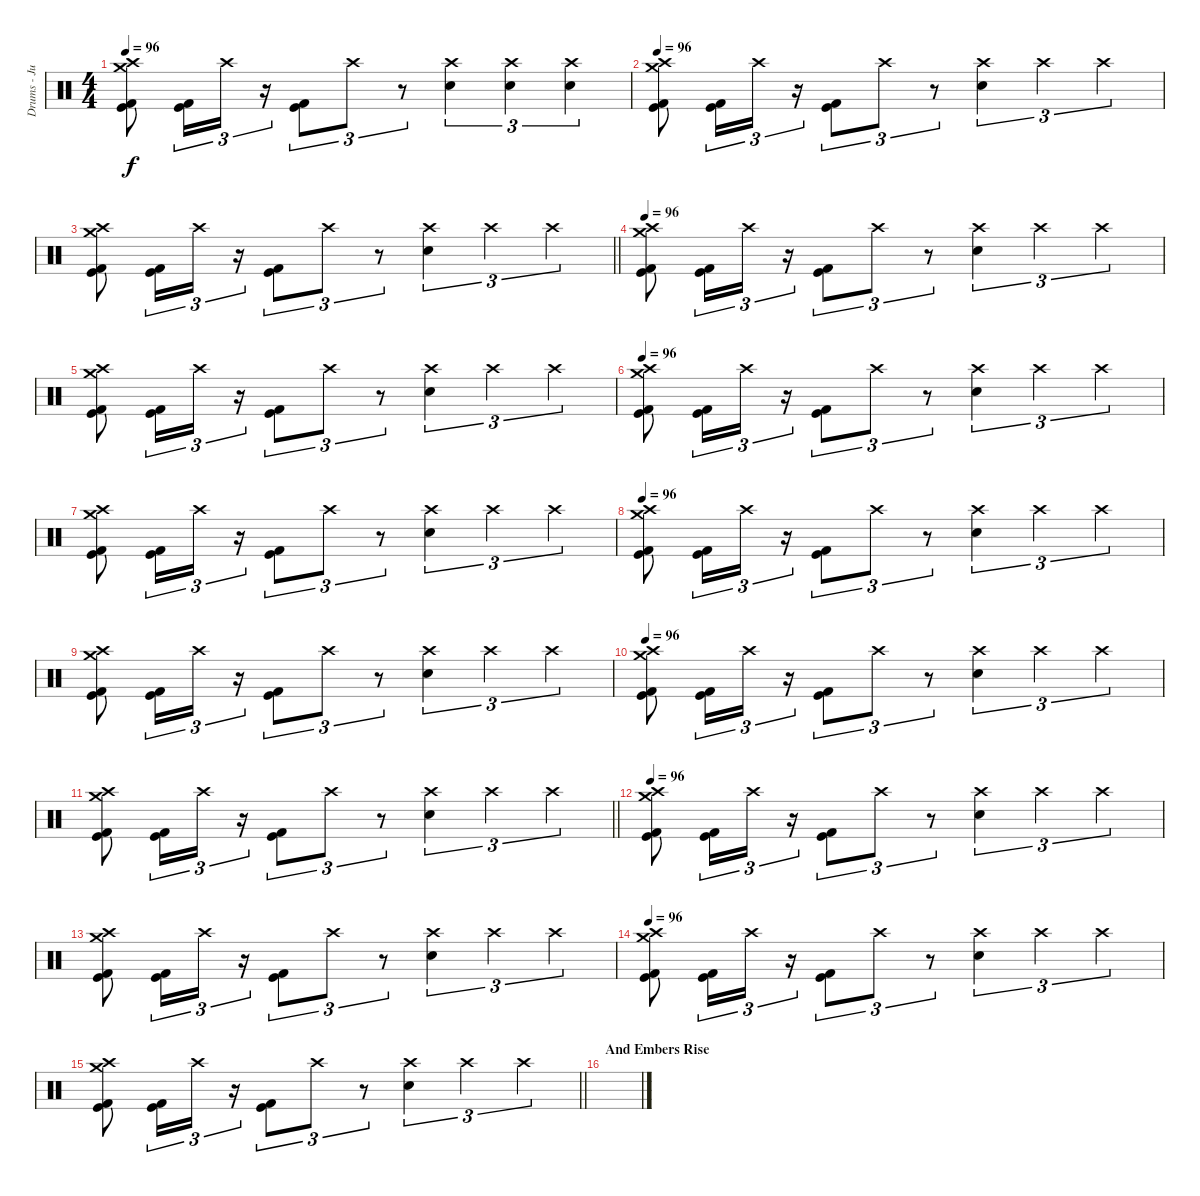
\track ("Drums - Justin Foley" "Drums - Ju") {instrument percussion}
\staff {score}
\articulation defaults
\ts (4 4)
\tempo 96
\clef neutral
\ks c
("Crash high (hit)" "Kick (hit) 2" "Kick (hit)" "Crash medium (hit)").8{dy f} ("Kick (hit) 2" "Kick (hit)").16{tu (3 2)} "Crash high (hit)".16{tu (3 2)} r.16{tu (3 2)} ("Kick (hit) 2" "Kick (hit)").8{tu (3 2)} "Crash high (hit)".8{tu (3 2)} r.8{tu (3 2)} ("Crash high (hit)" "Snare (hit) 2").4{tu (3 2)} ("Crash high (hit)" "Snare (hit) 2").4{tu (3 2)} ("Crash high (hit)" "Snare (hit) 2").4{tu (3 2)} |
\tempo 96
("Crash high (hit)" "Kick (hit) 2" "Kick (hit)" "Crash medium (hit)").8 ("Kick (hit) 2" "Kick (hit)").16{tu (3 2)} "Crash high (hit)".16{tu (3 2)} r.16{tu (3 2)} ("Kick (hit) 2" "Kick (hit)").8{tu (3 2)} "Crash high (hit)".8{tu (3 2)} r.8{tu (3 2)} ("Crash high (hit)" "Snare (hit) 2").4{tu (3 2)} "Crash high (hit)".4{tu (3 2)} "Crash high (hit)".4{tu (3 2)} |
\barLineRight lightlight
("Crash high (hit)" "Kick (hit) 2" "Kick (hit)" "Crash medium (hit)").8 ("Kick (hit) 2" "Kick (hit)").16{tu (3 2)} "Crash high (hit)".16{tu (3 2)} r.16{tu (3 2)} ("Kick (hit) 2" "Kick (hit)").8{tu (3 2)} "Crash high (hit)".8{tu (3 2)} r.8{tu (3 2)} ("Crash high (hit)" "Snare (hit) 2").4{tu (3 2)} "Crash high (hit)".4{tu (3 2)} "Crash high (hit)".4{tu (3 2)} |
\tempo 96
("Crash high (hit)" "Kick (hit) 2" "Kick (hit)" "Crash medium (hit)").8 ("Kick (hit) 2" "Kick (hit)").16{tu (3 2)} "Crash high (hit)".16{tu (3 2)} r.16{tu (3 2)} ("Kick (hit) 2" "Kick (hit)").8{tu (3 2)} "Crash high (hit)".8{tu (3 2)} r.8{tu (3 2)} ("Crash high (hit)" "Snare (hit) 2").4{tu (3 2)} "Crash high (hit)".4{tu (3 2)} "Crash high (hit)".4{tu (3 2)} |
("Crash high (hit)" "Kick (hit) 2" "Kick (hit)" "Crash medium (hit)").8 ("Kick (hit) 2" "Kick (hit)").16{tu (3 2)} "Crash high (hit)".16{tu (3 2)} r.16{tu (3 2)} ("Kick (hit) 2" "Kick (hit)").8{tu (3 2)} "Crash high (hit)".8{tu (3 2)} r.8{tu (3 2)} ("Crash high (hit)" "Snare (hit) 2").4{tu (3 2)} "Crash high (hit)".4{tu (3 2)} "Crash high (hit)".4{tu (3 2)} |
\tempo 96
("Crash high (hit)" "Kick (hit) 2" "Kick (hit)" "Crash medium (hit)").8 ("Kick (hit) 2" "Kick (hit)").16{tu (3 2)} "Crash high (hit)".16{tu (3 2)} r.16{tu (3 2)} ("Kick (hit) 2" "Kick (hit)").8{tu (3 2)} "Crash high (hit)".8{tu (3 2)} r.8{tu (3 2)} ("Crash high (hit)" "Snare (hit) 2").4{tu (3 2)} "Crash high (hit)".4{tu (3 2)} "Crash high (hit)".4{tu (3 2)} |
("Crash high (hit)" "Kick (hit) 2" "Kick (hit)" "Crash medium (hit)").8 ("Kick (hit) 2" "Kick (hit)").16{tu (3 2)} "Crash high (hit)".16{tu (3 2)} r.16{tu (3 2)} ("Kick (hit) 2" "Kick (hit)").8{tu (3 2)} "Crash high (hit)".8{tu (3 2)} r.8{tu (3 2)} ("Crash high (hit)" "Snare (hit) 2").4{tu (3 2)} "Crash high (hit)".4{tu (3 2)} "Crash high (hit)".4{tu (3 2)} |
\tempo 96
("Crash high (hit)" "Kick (hit) 2" "Kick (hit)" "Crash medium (hit)").8 ("Kick (hit) 2" "Kick (hit)").16{tu (3 2)} "Crash high (hit)".16{tu (3 2)} r.16{tu (3 2)} ("Kick (hit) 2" "Kick (hit)").8{tu (3 2)} "Crash high (hit)".8{tu (3 2)} r.8{tu (3 2)} ("Crash high (hit)" "Snare (hit) 2").4{tu (3 2)} "Crash high (hit)".4{tu (3 2)} "Crash high (hit)".4{tu (3 2)} |
("Crash high (hit)" "Kick (hit) 2" "Kick (hit)" "Crash medium (hit)").8 ("Kick (hit) 2" "Kick (hit)").16{tu (3 2)} "Crash high (hit)".16{tu (3 2)} r.16{tu (3 2)} ("Kick (hit) 2" "Kick (hit)").8{tu (3 2)} "Crash high (hit)".8{tu (3 2)} r.8{tu (3 2)} ("Crash high (hit)" "Snare (hit) 2").4{tu (3 2)} "Crash high (hit)".4{tu (3 2)} "Crash high (hit)".4{tu (3 2)} |
\tempo 96
("Crash high (hit)" "Kick (hit) 2" "Kick (hit)" "Crash medium (hit)").8 ("Kick (hit) 2" "Kick (hit)").16{tu (3 2)} "Crash high (hit)".16{tu (3 2)} r.16{tu (3 2)} ("Kick (hit) 2" "Kick (hit)").8{tu (3 2)} "Crash high (hit)".8{tu (3 2)} r.8{tu (3 2)} ("Crash high (hit)" "Snare (hit) 2").4{tu (3 2)} "Crash high (hit)".4{tu (3 2)} "Crash high (hit)".4{tu (3 2)} |
\barLineRight lightlight
("Crash high (hit)" "Kick (hit) 2" "Kick (hit)" "Crash medium (hit)").8 ("Kick (hit) 2" "Kick (hit)").16{tu (3 2)} "Crash high (hit)".16{tu (3 2)} r.16{tu (3 2)} ("Kick (hit) 2" "Kick (hit)").8{tu (3 2)} "Crash high (hit)".8{tu (3 2)} r.8{tu (3 2)} ("Crash high (hit)" "Snare (hit) 2").4{tu (3 2)} "Crash high (hit)".4{tu (3 2)} "Crash high (hit)".4{tu (3 2)} |
\tempo 96
("Crash high (hit)" "Kick (hit) 2" "Kick (hit)" "Crash medium (hit)").8 ("Kick (hit) 2" "Kick (hit)").16{tu (3 2)} "Crash high (hit)".16{tu (3 2)} r.16{tu (3 2)} ("Kick (hit) 2" "Kick (hit)").8{tu (3 2)} "Crash high (hit)".8{tu (3 2)} r.8{tu (3 2)} ("Crash high (hit)" "Snare (hit) 2").4{tu (3 2)} "Crash high (hit)".4{tu (3 2)} "Crash high (hit)".4{tu (3 2)} |
("Crash high (hit)" "Kick (hit) 2" "Kick (hit)" "Crash medium (hit)").8 ("Kick (hit) 2" "Kick (hit)").16{tu (3 2)} "Crash high (hit)".16{tu (3 2)} r.16{tu (3 2)} ("Kick (hit) 2" "Kick (hit)").8{tu (3 2)} "Crash high (hit)".8{tu (3 2)} r.8{tu (3 2)} ("Crash high (hit)" "Snare (hit) 2").4{tu (3 2)} "Crash high (hit)".4{tu (3 2)} "Crash high (hit)".4{tu (3 2)} |
\tempo 96
("Crash high (hit)" "Kick (hit) 2" "Kick (hit)" "Crash medium (hit)").8 ("Kick (hit) 2" "Kick (hit)").16{tu (3 2)} "Crash high (hit)".16{tu (3 2)} r.16{tu (3 2)} ("Kick (hit) 2" "Kick (hit)").8{tu (3 2)} "Crash high (hit)".8{tu (3 2)} r.8{tu (3 2)} ("Crash high (hit)" "Snare (hit) 2").4{tu (3 2)} "Crash high (hit)".4{tu (3 2)} "Crash high (hit)".4{tu (3 2)} |
\barLineRight lightlight
("Crash high (hit)" "Kick (hit) 2" "Kick (hit)" "Crash medium (hit)").8 ("Kick (hit) 2" "Kick (hit)").16{tu (3 2)} "Crash high (hit)".16{tu (3 2)} r.16{tu (3 2)} ("Kick (hit) 2" "Kick (hit)").8{tu (3 2)} "Crash high (hit)".8{tu (3 2)} r.8{tu (3 2)} ("Crash high (hit)" "Snare (hit) 2").4{tu (3 2)} "Crash high (hit)".4{tu (3 2)} "Crash high (hit)".4{tu (3 2)} |
\section ("" "And Embers Rise")
